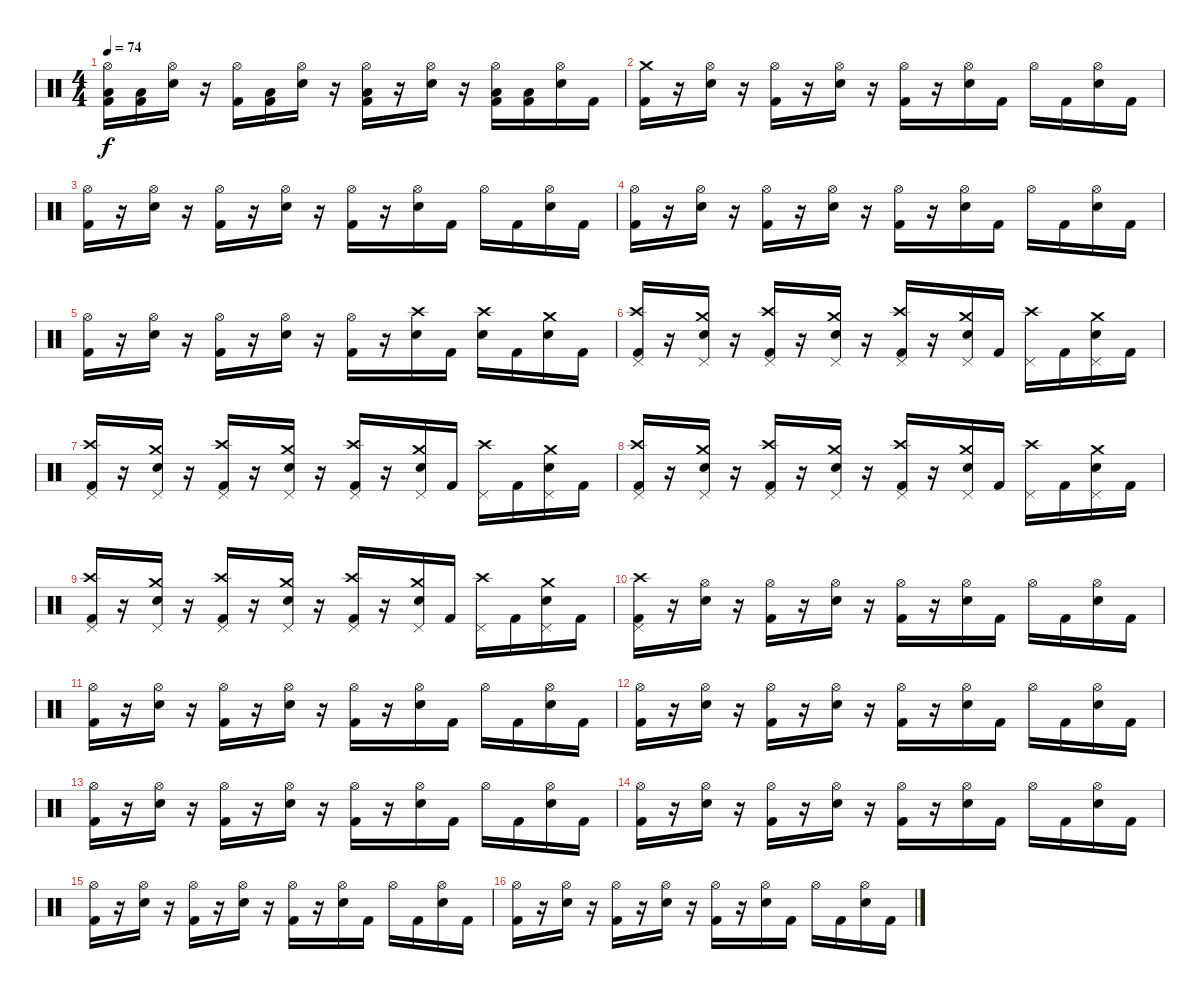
\track "" {instrument percussion}
\staff {score}
\articulation defaults
\ts (4 4)
\tempo 74
\clef neutral
\ks c
("Hi-Hat (open)" "Low Tom (hit)" "Kick (hit) 2").16{dy f} ("Low Tom (hit)" "Kick (hit) 2").16 ("Hi-Hat (open)" "Electric Snare (hit)").16 r.16 ("Hi-Hat (open)" "Kick (hit) 2").16 ("Low Tom (hit)" "Kick (hit) 2").16 ("Hi-Hat (open)" "Electric Snare (hit)").16 r.16 ("Hi-Hat (open)" "Low Tom (hit)" "Kick (hit) 2").16 r.16 ("Hi-Hat (open)" "Electric Snare (hit)").16 r.16 ("Hi-Hat (open)" "Low Tom (hit)" "Kick (hit) 2").16 ("Low Tom (hit)" "Kick (hit) 2").16 ("Hi-Hat (open)" "Electric Snare (hit)").16 "Kick (hit) 2".16 |
("Crash medium (hit)" "Kick (hit) 2").16 r.16 ("Hi-Hat (open)" "Electric Snare (hit)").16 r.16 ("Hi-Hat (open)" "Kick (hit) 2").16 r.16 ("Hi-Hat (open)" "Electric Snare (hit)").16 r.16 ("Hi-Hat (open)" "Kick (hit) 2").16 r.16 ("Hi-Hat (open)" "Electric Snare (hit)").16 "Kick (hit) 2".16 "Hi-Hat (open)".16 "Kick (hit) 2".16 ("Hi-Hat (open)" "Electric Snare (hit)").16 "Kick (hit) 2".16 |
("Hi-Hat (open)" "Kick (hit) 2").16 r.16 ("Hi-Hat (open)" "Electric Snare (hit)").16 r.16 ("Hi-Hat (open)" "Kick (hit) 2").16 r.16 ("Hi-Hat (open)" "Electric Snare (hit)").16 r.16 ("Hi-Hat (open)" "Kick (hit) 2").16 r.16 ("Hi-Hat (open)" "Electric Snare (hit)").16 "Kick (hit) 2".16 "Hi-Hat (open)".16 "Kick (hit) 2".16 ("Hi-Hat (open)" "Electric Snare (hit)").16 "Kick (hit) 2".16 |
("Hi-Hat (open)" "Kick (hit) 2").16 r.16 ("Hi-Hat (open)" "Electric Snare (hit)").16 r.16 ("Hi-Hat (open)" "Kick (hit) 2").16 r.16 ("Hi-Hat (open)" "Electric Snare (hit)").16 r.16 ("Hi-Hat (open)" "Kick (hit) 2").16 r.16 ("Hi-Hat (open)" "Electric Snare (hit)").16 "Kick (hit) 2".16 "Hi-Hat (open)".16 "Kick (hit) 2".16 ("Hi-Hat (open)" "Electric Snare (hit)").16 "Kick (hit) 2".16 |
("Hi-Hat (open)" "Kick (hit) 2").16 r.16 ("Hi-Hat (open)" "Electric Snare (hit)").16 r.16 ("Hi-Hat (open)" "Kick (hit) 2").16 r.16 ("Hi-Hat (open)" "Electric Snare (hit)").16 r.16 ("Hi-Hat (open)" "Kick (hit) 2").16 r.16 ("Crash high (hit)" "Electric Snare (hit)").16 "Kick (hit) 2".16 ("Crash high (hit)" "Electric Snare (hit)").16 "Kick (hit) 2".16 ("Crash medium (hit)" "Electric Snare (hit)").16 "Kick (hit) 2".16 |
("Crash high (hit)" "Pedal Hi-Hat (hit)" "Kick (hit) 2").16 r.16 ("Crash medium (hit)" "Pedal Hi-Hat (hit)" "Electric Snare (hit)").16 r.16 ("Crash high (hit)" "Pedal Hi-Hat (hit)" "Kick (hit) 2").16 r.16 ("Crash medium (hit)" "Pedal Hi-Hat (hit)" "Electric Snare (hit)").16 r.16 ("Crash high (hit)" "Pedal Hi-Hat (hit)" "Kick (hit) 2").16 r.16 ("Crash medium (hit)" "Pedal Hi-Hat (hit)" "Electric Snare (hit)").16 "Kick (hit) 2".16 ("Crash high (hit)" "Pedal Hi-Hat (hit)").16 "Kick (hit) 2".16 ("Crash medium (hit)" "Pedal Hi-Hat (hit)" "Electric Snare (hit)").16 "Kick (hit) 2".16 |
("Crash high (hit)" "Pedal Hi-Hat (hit)" "Kick (hit) 2").16 r.16 ("Crash medium (hit)" "Pedal Hi-Hat (hit)" "Electric Snare (hit)").16 r.16 ("Crash high (hit)" "Pedal Hi-Hat (hit)" "Kick (hit) 2").16 r.16 ("Crash medium (hit)" "Pedal Hi-Hat (hit)" "Electric Snare (hit)").16 r.16 ("Crash high (hit)" "Pedal Hi-Hat (hit)" "Kick (hit) 2").16 r.16 ("Crash medium (hit)" "Pedal Hi-Hat (hit)" "Electric Snare (hit)").16 "Kick (hit) 2".16 ("Crash high (hit)" "Pedal Hi-Hat (hit)").16 "Kick (hit) 2".16 ("Crash medium (hit)" "Pedal Hi-Hat (hit)" "Electric Snare (hit)").16 "Kick (hit) 2".16 |
("Crash high (hit)" "Pedal Hi-Hat (hit)" "Kick (hit) 2").16 r.16 ("Crash medium (hit)" "Pedal Hi-Hat (hit)" "Electric Snare (hit)").16 r.16 ("Crash high (hit)" "Pedal Hi-Hat (hit)" "Kick (hit) 2").16 r.16 ("Crash medium (hit)" "Pedal Hi-Hat (hit)" "Electric Snare (hit)").16 r.16 ("Crash high (hit)" "Pedal Hi-Hat (hit)" "Kick (hit) 2").16 r.16 ("Crash medium (hit)" "Pedal Hi-Hat (hit)" "Electric Snare (hit)").16 "Kick (hit) 2".16 ("Crash high (hit)" "Pedal Hi-Hat (hit)").16 "Kick (hit) 2".16 ("Crash medium (hit)" "Pedal Hi-Hat (hit)" "Electric Snare (hit)").16 "Kick (hit) 2".16 |
("Crash high (hit)" "Pedal Hi-Hat (hit)" "Kick (hit) 2").16 r.16 ("Crash medium (hit)" "Pedal Hi-Hat (hit)" "Electric Snare (hit)").16 r.16 ("Crash high (hit)" "Pedal Hi-Hat (hit)" "Kick (hit) 2").16 r.16 ("Crash medium (hit)" "Pedal Hi-Hat (hit)" "Electric Snare (hit)").16 r.16 ("Crash high (hit)" "Pedal Hi-Hat (hit)" "Kick (hit) 2").16 r.16 ("Crash medium (hit)" "Pedal Hi-Hat (hit)" "Electric Snare (hit)").16 "Kick (hit) 2".16 ("Crash high (hit)" "Pedal Hi-Hat (hit)").16 "Kick (hit) 2".16 ("Crash medium (hit)" "Pedal Hi-Hat (hit)" "Electric Snare (hit)").16 "Kick (hit) 2".16 |
("Crash high (hit)" "Pedal Hi-Hat (hit)" "Kick (hit) 2").16 r.16 ("Hi-Hat (open)" "Electric Snare (hit)").16 r.16 ("Hi-Hat (open)" "Kick (hit) 2").16 r.16 ("Hi-Hat (open)" "Electric Snare (hit)").16 r.16 ("Hi-Hat (open)" "Kick (hit) 2").16 r.16 ("Hi-Hat (open)" "Electric Snare (hit)").16 "Kick (hit) 2".16 "Hi-Hat (open)".16 "Kick (hit) 2".16 ("Hi-Hat (open)" "Electric Snare (hit)").16 "Kick (hit) 2".16 |
("Hi-Hat (open)" "Kick (hit) 2").16 r.16 ("Hi-Hat (open)" "Electric Snare (hit)").16 r.16 ("Hi-Hat (open)" "Kick (hit) 2").16 r.16 ("Hi-Hat (open)" "Electric Snare (hit)").16 r.16 ("Hi-Hat (open)" "Kick (hit) 2").16 r.16 ("Hi-Hat (open)" "Electric Snare (hit)").16 "Kick (hit) 2".16 "Hi-Hat (open)".16 "Kick (hit) 2".16 ("Hi-Hat (open)" "Electric Snare (hit)").16 "Kick (hit) 2".16 |
("Hi-Hat (open)" "Kick (hit) 2").16 r.16 ("Hi-Hat (open)" "Electric Snare (hit)").16 r.16 ("Hi-Hat (open)" "Kick (hit) 2").16 r.16 ("Hi-Hat (open)" "Electric Snare (hit)").16 r.16 ("Hi-Hat (open)" "Kick (hit) 2").16 r.16 ("Hi-Hat (open)" "Electric Snare (hit)").16 "Kick (hit) 2".16 "Hi-Hat (open)".16 "Kick (hit) 2".16 ("Hi-Hat (open)" "Electric Snare (hit)").16 "Kick (hit) 2".16 |
("Hi-Hat (open)" "Kick (hit) 2").16 r.16 ("Hi-Hat (open)" "Electric Snare (hit)").16 r.16 ("Hi-Hat (open)" "Kick (hit) 2").16 r.16 ("Hi-Hat (open)" "Electric Snare (hit)").16 r.16 ("Hi-Hat (open)" "Kick (hit) 2").16 r.16 ("Hi-Hat (open)" "Electric Snare (hit)").16 "Kick (hit) 2".16 "Hi-Hat (open)".16 "Kick (hit) 2".16 ("Hi-Hat (open)" "Electric Snare (hit)").16 "Kick (hit) 2".16 |
("Hi-Hat (open)" "Kick (hit) 2").16 r.16 ("Hi-Hat (open)" "Electric Snare (hit)").16 r.16 ("Hi-Hat (open)" "Kick (hit) 2").16 r.16 ("Hi-Hat (open)" "Electric Snare (hit)").16 r.16 ("Hi-Hat (open)" "Kick (hit) 2").16 r.16 ("Hi-Hat (open)" "Electric Snare (hit)").16 "Kick (hit) 2".16 "Hi-Hat (open)".16 "Kick (hit) 2".16 ("Hi-Hat (open)" "Electric Snare (hit)").16 "Kick (hit) 2".16 |
("Hi-Hat (open)" "Kick (hit) 2").16 r.16 ("Hi-Hat (open)" "Electric Snare (hit)").16 r.16 ("Hi-Hat (open)" "Kick (hit) 2").16 r.16 ("Hi-Hat (open)" "Electric Snare (hit)").16 r.16 ("Hi-Hat (open)" "Kick (hit) 2").16 r.16 ("Hi-Hat (open)" "Electric Snare (hit)").16 "Kick (hit) 2".16 "Hi-Hat (open)".16 "Kick (hit) 2".16 ("Hi-Hat (open)" "Electric Snare (hit)").16 "Kick (hit) 2".16 |
("Hi-Hat (open)" "Kick (hit) 2").16 r.16 ("Hi-Hat (open)" "Electric Snare (hit)").16 r.16 ("Hi-Hat (open)" "Kick (hit) 2").16 r.16 ("Hi-Hat (open)" "Electric Snare (hit)").16 r.16 ("Hi-Hat (open)" "Kick (hit) 2").16 r.16 ("Hi-Hat (open)" "Electric Snare (hit)").16 "Kick (hit) 2".16 "Hi-Hat (open)".16 "Kick (hit) 2".16 ("Hi-Hat (open)" "Electric Snare (hit)").16 "Kick (hit) 2".16
